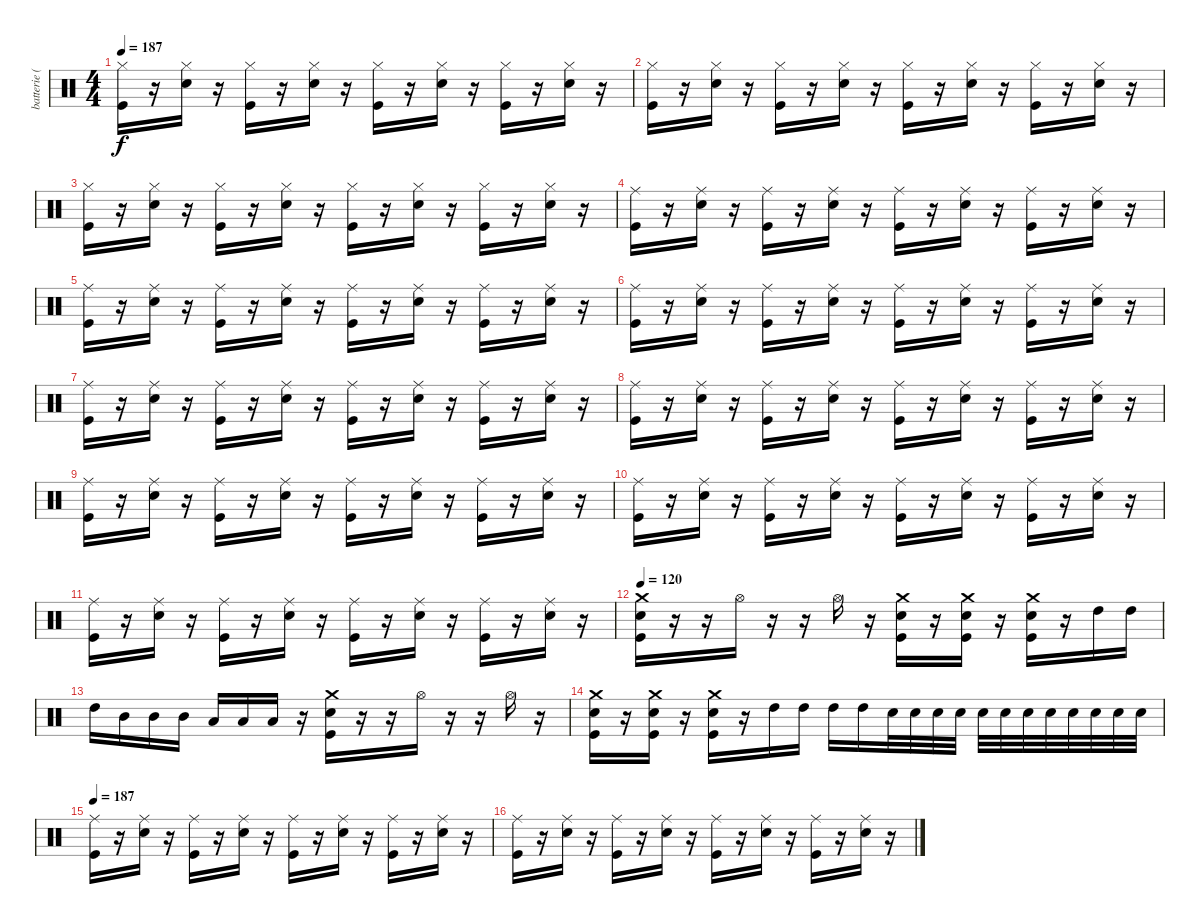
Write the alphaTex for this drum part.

\track ("batterie ( Mike ) " "batterie (") {instrument percussion}
\staff {score}
\articulation defaults
\ts (4 4)
\tempo 187
\clef neutral
\ks c
("Hi-Hat (closed)" "Kick (hit)").16{dy f} r.16 ("Hi-Hat (closed)" "Snare (hit) 2").16 r.16 ("Hi-Hat (closed)" "Kick (hit)").16 r.16 ("Hi-Hat (closed)" "Snare (hit) 2").16 r.16 ("Hi-Hat (closed)" "Kick (hit)").16 r.16 ("Hi-Hat (closed)" "Snare (hit) 2").16 r.16 ("Hi-Hat (closed)" "Kick (hit)").16 r.16 ("Hi-Hat (closed)" "Snare (hit) 2").16 r.16 |
("Hi-Hat (closed)" "Kick (hit)").16 r.16 ("Hi-Hat (closed)" "Snare (hit) 2").16 r.16 ("Hi-Hat (closed)" "Kick (hit)").16 r.16 ("Hi-Hat (closed)" "Snare (hit) 2").16 r.16 ("Hi-Hat (closed)" "Kick (hit)").16 r.16 ("Hi-Hat (closed)" "Snare (hit) 2").16 r.16 ("Hi-Hat (closed)" "Kick (hit)").16 r.16 ("Hi-Hat (closed)" "Snare (hit) 2").16 r.16 |
("Hi-Hat (closed)" "Kick (hit)").16 r.16 ("Hi-Hat (closed)" "Snare (hit) 2").16 r.16 ("Hi-Hat (closed)" "Kick (hit)").16 r.16 ("Hi-Hat (closed)" "Snare (hit) 2").16 r.16 ("Hi-Hat (closed)" "Kick (hit)").16 r.16 ("Hi-Hat (closed)" "Snare (hit) 2").16 r.16 ("Hi-Hat (closed)" "Kick (hit)").16 r.16 ("Hi-Hat (closed)" "Snare (hit) 2").16 r.16 |
("Ride (middle)" "Kick (hit)").16 r.16 ("Ride (middle)" "Snare (hit) 2").16 r.16 ("Ride (middle)" "Kick (hit)").16 r.16 ("Ride (middle)" "Snare (hit) 2").16 r.16 ("Ride (middle)" "Kick (hit)").16 r.16 ("Ride (middle)" "Snare (hit) 2").16 r.16 ("Ride (middle)" "Kick (hit)").16 r.16 ("Ride (middle)" "Snare (hit) 2").16 r.16 |
("Ride (middle)" "Kick (hit)").16 r.16 ("Ride (middle)" "Snare (hit) 2").16 r.16 ("Ride (middle)" "Kick (hit)").16 r.16 ("Ride (middle)" "Snare (hit) 2").16 r.16 ("Ride (middle)" "Kick (hit)").16 r.16 ("Ride (middle)" "Snare (hit) 2").16 r.16 ("Ride (middle)" "Kick (hit)").16 r.16 ("Ride (middle)" "Snare (hit) 2").16 r.16 |
("Ride (middle)" "Kick (hit)").16 r.16 ("Ride (middle)" "Snare (hit) 2").16 r.16 ("Ride (middle)" "Kick (hit)").16 r.16 ("Ride (middle)" "Snare (hit) 2").16 r.16 ("Ride (middle)" "Kick (hit)").16 r.16 ("Ride (middle)" "Snare (hit) 2").16 r.16 ("Ride (middle)" "Kick (hit)").16 r.16 ("Ride (middle)" "Snare (hit) 2").16 r.16 |
("Ride (middle)" "Kick (hit)").16 r.16 ("Ride (middle)" "Snare (hit) 2").16 r.16 ("Ride (middle)" "Kick (hit)").16 r.16 ("Ride (middle)" "Snare (hit) 2").16 r.16 ("Ride (middle)" "Kick (hit)").16 r.16 ("Ride (middle)" "Snare (hit) 2").16 r.16 ("Ride (middle)" "Kick (hit)").16 r.16 ("Ride (middle)" "Snare (hit) 2").16 r.16 |
("Ride (middle)" "Kick (hit)").16 r.16 ("Ride (middle)" "Snare (hit) 2").16 r.16 ("Ride (middle)" "Kick (hit)").16 r.16 ("Ride (middle)" "Snare (hit) 2").16 r.16 ("Ride (middle)" "Kick (hit)").16 r.16 ("Ride (middle)" "Snare (hit) 2").16 r.16 ("Ride (middle)" "Kick (hit)").16 r.16 ("Ride (middle)" "Snare (hit) 2").16 r.16 |
("Ride (middle)" "Kick (hit)").16 r.16 ("Ride (middle)" "Snare (hit) 2").16 r.16 ("Ride (middle)" "Kick (hit)").16 r.16 ("Ride (middle)" "Snare (hit) 2").16 r.16 ("Ride (middle)" "Kick (hit)").16 r.16 ("Ride (middle)" "Snare (hit) 2").16 r.16 ("Ride (middle)" "Kick (hit)").16 r.16 ("Ride (middle)" "Snare (hit) 2").16 r.16 |
("Ride (middle)" "Kick (hit)").16 r.16 ("Ride (middle)" "Snare (hit) 2").16 r.16 ("Ride (middle)" "Kick (hit)").16 r.16 ("Ride (middle)" "Snare (hit) 2").16 r.16 ("Ride (middle)" "Kick (hit)").16 r.16 ("Ride (middle)" "Snare (hit) 2").16 r.16 ("Ride (middle)" "Kick (hit)").16 r.16 ("Ride (middle)" "Snare (hit) 2").16 r.16 |
("Ride (middle)" "Kick (hit)").16 r.16 ("Ride (middle)" "Snare (hit) 2").16 r.16 ("Ride (middle)" "Kick (hit)").16 r.16 ("Ride (middle)" "Snare (hit) 2").16 r.16 ("Ride (middle)" "Kick (hit)").16 r.16 ("Ride (middle)" "Snare (hit) 2").16 r.16 ("Ride (middle)" "Kick (hit)").16 r.16 ("Ride (middle)" "Snare (hit) 2").16 r.16 |
\tempo 120
("Crash medium (hit)" "Snare (hit) 2" "Kick (hit)").16 r.16 r.16 "Hi-Hat (open)".16 r.16 r.16 "Hi-Hat (open)".16 r.16 ("Crash medium (hit)" "Snare (hit) 2" "Kick (hit)").16 r.16 ("Crash medium (hit)" "Snare (hit) 2" "Kick (hit)").16 r.16 ("Crash medium (hit)" "Snare (hit) 2" "Kick (hit)").16 r.16 "High Tom (hit)".16 "High Tom (hit)".16 |
"High Tom (hit)".16 "Mid Tom (hit)".16 "Mid Tom (hit)".16 "Mid Tom (hit)".16 "Low Tom (hit)".16 "Low Tom (hit)".16 "Low Tom (hit)".16 r.16 ("Crash medium (hit)" "Snare (hit) 2" "Kick (hit)").16 r.16 r.16 "Hi-Hat (open)".16 r.16 r.16 "Hi-Hat (open)".16 r.16 |
("Crash medium (hit)" "Snare (hit) 2" "Kick (hit)").16 r.16 ("Crash medium (hit)" "Snare (hit) 2" "Kick (hit)").16 r.16 ("Crash medium (hit)" "Snare (hit) 2" "Kick (hit)").16 r.16 "High Tom (hit)".16 "High Tom (hit)".16 "High Tom (hit)".16 "High Tom (hit)".16 "Snare (hit) 2".32 "Snare (hit) 2".32 "Snare (hit) 2".32 "Snare (hit) 2".32 "Snare (hit) 2".32 "Snare (hit) 2".32 "Snare (hit) 2".32 "Snare (hit) 2".32 "Snare (hit) 2".32 "Snare (hit) 2".32 "Snare (hit) 2".32 "Snare (hit) 2".32 |
\tempo 187
("Ride (middle)" "Kick (hit)").16 r.16 ("Ride (middle)" "Snare (hit) 2").16 r.16 ("Ride (middle)" "Kick (hit)").16 r.16 ("Ride (middle)" "Snare (hit) 2").16 r.16 ("Ride (middle)" "Kick (hit)").16 r.16 ("Ride (middle)" "Snare (hit) 2").16 r.16 ("Ride (middle)" "Kick (hit)").16 r.16 ("Ride (middle)" "Snare (hit) 2").16 r.16 |
("Ride (middle)" "Kick (hit)").16 r.16 ("Ride (middle)" "Snare (hit) 2").16 r.16 ("Ride (middle)" "Kick (hit)").16 r.16 ("Ride (middle)" "Snare (hit) 2").16 r.16 ("Ride (middle)" "Kick (hit)").16 r.16 ("Ride (middle)" "Snare (hit) 2").16 r.16 ("Ride (middle)" "Kick (hit)").16 r.16 ("Ride (middle)" "Snare (hit) 2").16 r.16
